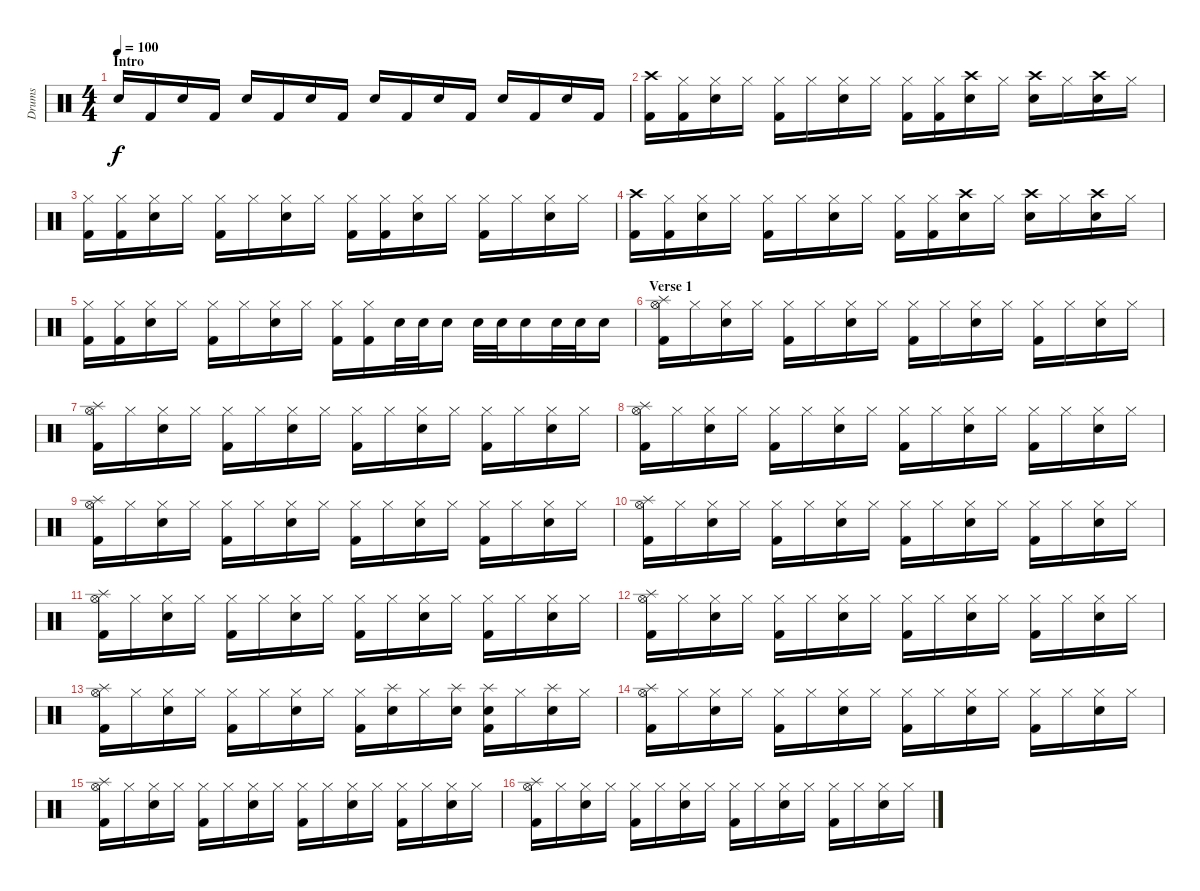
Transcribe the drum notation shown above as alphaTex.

\track ("Drums" "Drums") {instrument percussion}
\staff {score}
\articulation defaults
\ts (4 4)
\section ("" "Intro")
\tempo 100
\clef neutral
\ks c "Electric Snare (hit)".16{dy f} "Kick (hit) 2".16 "Electric Snare (hit)".16 "Kick (hit) 2".16 "Electric Snare (hit)".16 "Kick (hit) 2".16 "Electric Snare (hit)".16 "Kick (hit) 2".16 "Electric Snare (hit)".16 "Kick (hit) 2".16 "Electric Snare (hit)".16 "Kick (hit) 2".16 "Electric Snare (hit)".16 "Kick (hit) 2".16 "Electric Snare (hit)".16 "Kick (hit) 2".16
|
("Crash high (hit)" "Kick (hit) 2").16 ("Hi-Hat (closed)" "Kick (hit) 2").16 ("Hi-Hat (closed)" "Snare (hit) 2").16 "Hi-Hat (closed)".16 ("Hi-Hat (closed)" "Kick (hit) 2").16 "Hi-Hat (closed)".16 ("Hi-Hat (closed)" "Snare (hit) 2").16 "Hi-Hat (closed)".16 ("Hi-Hat (closed)" "Kick (hit) 2").16 ("Hi-Hat (closed)" "Kick (hit) 2").16 ("Crash high (hit)" "Snare (hit) 2").16 "Hi-Hat (closed)".16 ("Crash high (hit)" "Snare (hit) 2").16 "Hi-Hat (closed)".16 ("Crash high (hit)" "Snare (hit) 2").16 "Hi-Hat (closed)".16 |
("Hi-Hat (closed)" "Kick (hit) 2").16 ("Hi-Hat (closed)" "Kick (hit) 2").16 ("Hi-Hat (closed)" "Snare (hit) 2").16 "Hi-Hat (closed)".16 ("Hi-Hat (closed)" "Kick (hit) 2").16 "Hi-Hat (closed)".16 ("Hi-Hat (closed)" "Snare (hit) 2").16 "Hi-Hat (closed)".16 ("Hi-Hat (closed)" "Kick (hit) 2").16 ("Hi-Hat (closed)" "Kick (hit) 2").16 ("Hi-Hat (closed)" "Snare (hit) 2").16 "Hi-Hat (closed)".16 ("Hi-Hat (closed)" "Kick (hit) 2").16 "Hi-Hat (closed)".16 ("Hi-Hat (closed)" "Snare (hit) 2").16 "Hi-Hat (closed)".16 |
("Crash high (hit)" "Kick (hit) 2").16 ("Hi-Hat (closed)" "Kick (hit) 2").16 ("Hi-Hat (closed)" "Snare (hit) 2").16 "Hi-Hat (closed)".16 ("Hi-Hat (closed)" "Kick (hit) 2").16 "Hi-Hat (closed)".16 ("Hi-Hat (closed)" "Snare (hit) 2").16 "Hi-Hat (closed)".16 ("Hi-Hat (closed)" "Kick (hit) 2").16 ("Hi-Hat (closed)" "Kick (hit) 2").16 ("Crash high (hit)" "Snare (hit) 2").16 "Hi-Hat (closed)".16 ("Crash high (hit)" "Snare (hit) 2").16 "Hi-Hat (closed)".16 ("Crash high (hit)" "Snare (hit) 2").16 "Hi-Hat (closed)".16 |
("Hi-Hat (closed)" "Kick (hit) 2").16 ("Hi-Hat (closed)" "Kick (hit) 2").16 ("Hi-Hat (closed)" "Snare (hit) 2").16 "Hi-Hat (closed)".16 ("Hi-Hat (closed)" "Kick (hit) 2").16 "Hi-Hat (closed)".16 ("Hi-Hat (closed)" "Snare (hit) 2").16 "Hi-Hat (closed)".16 ("Hi-Hat (closed)" "Kick (hit) 2").16 ("Hi-Hat (closed)" "Kick (hit) 2").16 "Snare (hit) 2".32 "Snare (hit) 2".32 "Snare (hit) 2".16 "Snare (hit) 2".32 "Snare (hit) 2".32 "Snare (hit) 2".16 "Snare (hit) 2".32 "Snare (hit) 2".32 "Snare (hit) 2".16 |
\section ("" "Verse 1")
("Hi-Hat (open)" "Splash (hit)" "Kick (hit) 2").16 "Hi-Hat (closed)".16 ("Hi-Hat (closed)" "Snare (hit) 2").16 "Hi-Hat (closed)".16 ("Hi-Hat (closed)" "Kick (hit) 2").16 "Hi-Hat (closed)".16 ("Hi-Hat (closed)" "Snare (hit) 2").16 "Hi-Hat (closed)".16 ("Hi-Hat (closed)" "Kick (hit) 2").16 "Hi-Hat (closed)".16 ("Hi-Hat (closed)" "Snare (hit) 2").16 "Hi-Hat (closed)".16 ("Hi-Hat (closed)" "Kick (hit) 2").16 "Hi-Hat (closed)".16 ("Hi-Hat (closed)" "Snare (hit) 2").16 "Hi-Hat (closed)".16 |
("Hi-Hat (open)" "Splash (hit)" "Kick (hit) 2").16 "Hi-Hat (closed)".16 ("Hi-Hat (closed)" "Snare (hit) 2").16 "Hi-Hat (closed)".16 ("Hi-Hat (closed)" "Kick (hit) 2").16 "Hi-Hat (closed)".16 ("Hi-Hat (closed)" "Snare (hit) 2").16 "Hi-Hat (closed)".16 ("Hi-Hat (closed)" "Kick (hit) 2").16 "Hi-Hat (closed)".16 ("Hi-Hat (closed)" "Snare (hit) 2").16 "Hi-Hat (closed)".16 ("Hi-Hat (closed)" "Kick (hit) 2").16 "Hi-Hat (closed)".16 ("Hi-Hat (closed)" "Snare (hit) 2").16 "Hi-Hat (closed)".16 |
("Hi-Hat (open)" "Splash (hit)" "Kick (hit) 2").16 "Hi-Hat (closed)".16 ("Hi-Hat (closed)" "Snare (hit) 2").16 "Hi-Hat (closed)".16 ("Hi-Hat (closed)" "Kick (hit) 2").16 "Hi-Hat (closed)".16 ("Hi-Hat (closed)" "Snare (hit) 2").16 "Hi-Hat (closed)".16 ("Hi-Hat (closed)" "Kick (hit) 2").16 "Hi-Hat (closed)".16 ("Hi-Hat (closed)" "Snare (hit) 2").16 "Hi-Hat (closed)".16 ("Hi-Hat (closed)" "Kick (hit) 2").16 "Hi-Hat (closed)".16 ("Hi-Hat (closed)" "Snare (hit) 2").16 "Hi-Hat (closed)".16 |
("Hi-Hat (open)" "Splash (hit)" "Kick (hit) 2").16 "Hi-Hat (closed)".16 ("Hi-Hat (closed)" "Snare (hit) 2").16 "Hi-Hat (closed)".16 ("Hi-Hat (closed)" "Kick (hit) 2").16 "Hi-Hat (closed)".16 ("Hi-Hat (closed)" "Snare (hit) 2").16 "Hi-Hat (closed)".16 ("Hi-Hat (closed)" "Kick (hit) 2").16 "Hi-Hat (closed)".16 ("Hi-Hat (closed)" "Snare (hit) 2").16 "Hi-Hat (closed)".16 ("Hi-Hat (closed)" "Kick (hit) 2").16 "Hi-Hat (closed)".16 ("Hi-Hat (closed)" "Snare (hit) 2").16 "Hi-Hat (closed)".16 |
("Hi-Hat (open)" "Splash (hit)" "Kick (hit) 2").16 "Hi-Hat (closed)".16 ("Hi-Hat (closed)" "Snare (hit) 2").16 "Hi-Hat (closed)".16 ("Hi-Hat (closed)" "Kick (hit) 2").16 "Hi-Hat (closed)".16 ("Hi-Hat (closed)" "Snare (hit) 2").16 "Hi-Hat (closed)".16 ("Hi-Hat (closed)" "Kick (hit) 2").16 "Hi-Hat (closed)".16 ("Hi-Hat (closed)" "Snare (hit) 2").16 "Hi-Hat (closed)".16 ("Hi-Hat (closed)" "Kick (hit) 2").16 "Hi-Hat (closed)".16 ("Hi-Hat (closed)" "Snare (hit) 2").16 "Hi-Hat (closed)".16 |
("Hi-Hat (open)" "Splash (hit)" "Kick (hit) 2").16 "Hi-Hat (closed)".16 ("Hi-Hat (closed)" "Snare (hit) 2").16 "Hi-Hat (closed)".16 ("Hi-Hat (closed)" "Kick (hit) 2").16 "Hi-Hat (closed)".16 ("Hi-Hat (closed)" "Snare (hit) 2").16 "Hi-Hat (closed)".16 ("Hi-Hat (closed)" "Kick (hit) 2").16 "Hi-Hat (closed)".16 ("Hi-Hat (closed)" "Snare (hit) 2").16 "Hi-Hat (closed)".16 ("Hi-Hat (closed)" "Kick (hit) 2").16 "Hi-Hat (closed)".16 ("Hi-Hat (closed)" "Snare (hit) 2").16 "Hi-Hat (closed)".16 |
("Hi-Hat (open)" "Splash (hit)" "Kick (hit) 2").16 "Hi-Hat (closed)".16 ("Hi-Hat (closed)" "Snare (hit) 2").16 "Hi-Hat (closed)".16 ("Hi-Hat (closed)" "Kick (hit) 2").16 "Hi-Hat (closed)".16 ("Hi-Hat (closed)" "Snare (hit) 2").16 "Hi-Hat (closed)".16 ("Hi-Hat (closed)" "Kick (hit) 2").16 "Hi-Hat (closed)".16 ("Hi-Hat (closed)" "Snare (hit) 2").16 "Hi-Hat (closed)".16 ("Hi-Hat (closed)" "Kick (hit) 2").16 "Hi-Hat (closed)".16 ("Hi-Hat (closed)" "Snare (hit) 2").16 "Hi-Hat (closed)".16 |
("Hi-Hat (open)" "Splash (hit)" "Kick (hit) 2").16 "Hi-Hat (closed)".16 ("Hi-Hat (closed)" "Snare (hit) 2").16 "Hi-Hat (closed)".16 ("Hi-Hat (closed)" "Kick (hit) 2").16 "Hi-Hat (closed)".16 ("Hi-Hat (closed)" "Snare (hit) 2").16 "Hi-Hat (closed)".16 ("Hi-Hat (closed)" "Kick (hit) 2").16 ("Splash (hit)" "Snare (hit) 2").16 "Hi-Hat (closed)".16 ("Splash (hit)" "Snare (hit) 2").16 ("Splash (hit)" "Snare (hit) 2" "Kick (hit) 2").16 "Hi-Hat (closed)".16 ("Splash (hit)" "Snare (hit) 2").16 "Hi-Hat (closed)".16 |
("Hi-Hat (open)" "Splash (hit)" "Kick (hit) 2").16 "Hi-Hat (closed)".16 ("Hi-Hat (closed)" "Snare (hit) 2").16 "Hi-Hat (closed)".16 ("Hi-Hat (closed)" "Kick (hit) 2").16 "Hi-Hat (closed)".16 ("Hi-Hat (closed)" "Snare (hit) 2").16 "Hi-Hat (closed)".16 ("Hi-Hat (closed)" "Kick (hit) 2").16 "Hi-Hat (closed)".16 ("Hi-Hat (closed)" "Snare (hit) 2").16 "Hi-Hat (closed)".16 ("Hi-Hat (closed)" "Kick (hit) 2").16 "Hi-Hat (closed)".16 ("Hi-Hat (closed)" "Snare (hit) 2").16 "Hi-Hat (closed)".16 |
("Hi-Hat (open)" "Splash (hit)" "Kick (hit) 2").16 "Hi-Hat (closed)".16 ("Hi-Hat (closed)" "Snare (hit) 2").16 "Hi-Hat (closed)".16 ("Hi-Hat (closed)" "Kick (hit) 2").16 "Hi-Hat (closed)".16 ("Hi-Hat (closed)" "Snare (hit) 2").16 "Hi-Hat (closed)".16 ("Hi-Hat (closed)" "Kick (hit) 2").16 "Hi-Hat (closed)".16 ("Hi-Hat (closed)" "Snare (hit) 2").16 "Hi-Hat (closed)".16 ("Hi-Hat (closed)" "Kick (hit) 2").16 "Hi-Hat (closed)".16 ("Hi-Hat (closed)" "Snare (hit) 2").16 "Hi-Hat (closed)".16 |
("Hi-Hat (open)" "Splash (hit)" "Kick (hit) 2").16 "Hi-Hat (closed)".16 ("Hi-Hat (closed)" "Snare (hit) 2").16 "Hi-Hat (closed)".16 ("Hi-Hat (closed)" "Kick (hit) 2").16 "Hi-Hat (closed)".16 ("Hi-Hat (closed)" "Snare (hit) 2").16 "Hi-Hat (closed)".16 ("Hi-Hat (closed)" "Kick (hit) 2").16 "Hi-Hat (closed)".16 ("Hi-Hat (closed)" "Snare (hit) 2").16 "Hi-Hat (closed)".16 ("Hi-Hat (closed)" "Kick (hit) 2").16 "Hi-Hat (closed)".16 ("Hi-Hat (closed)" "Snare (hit) 2").16 "Hi-Hat (closed)".16
